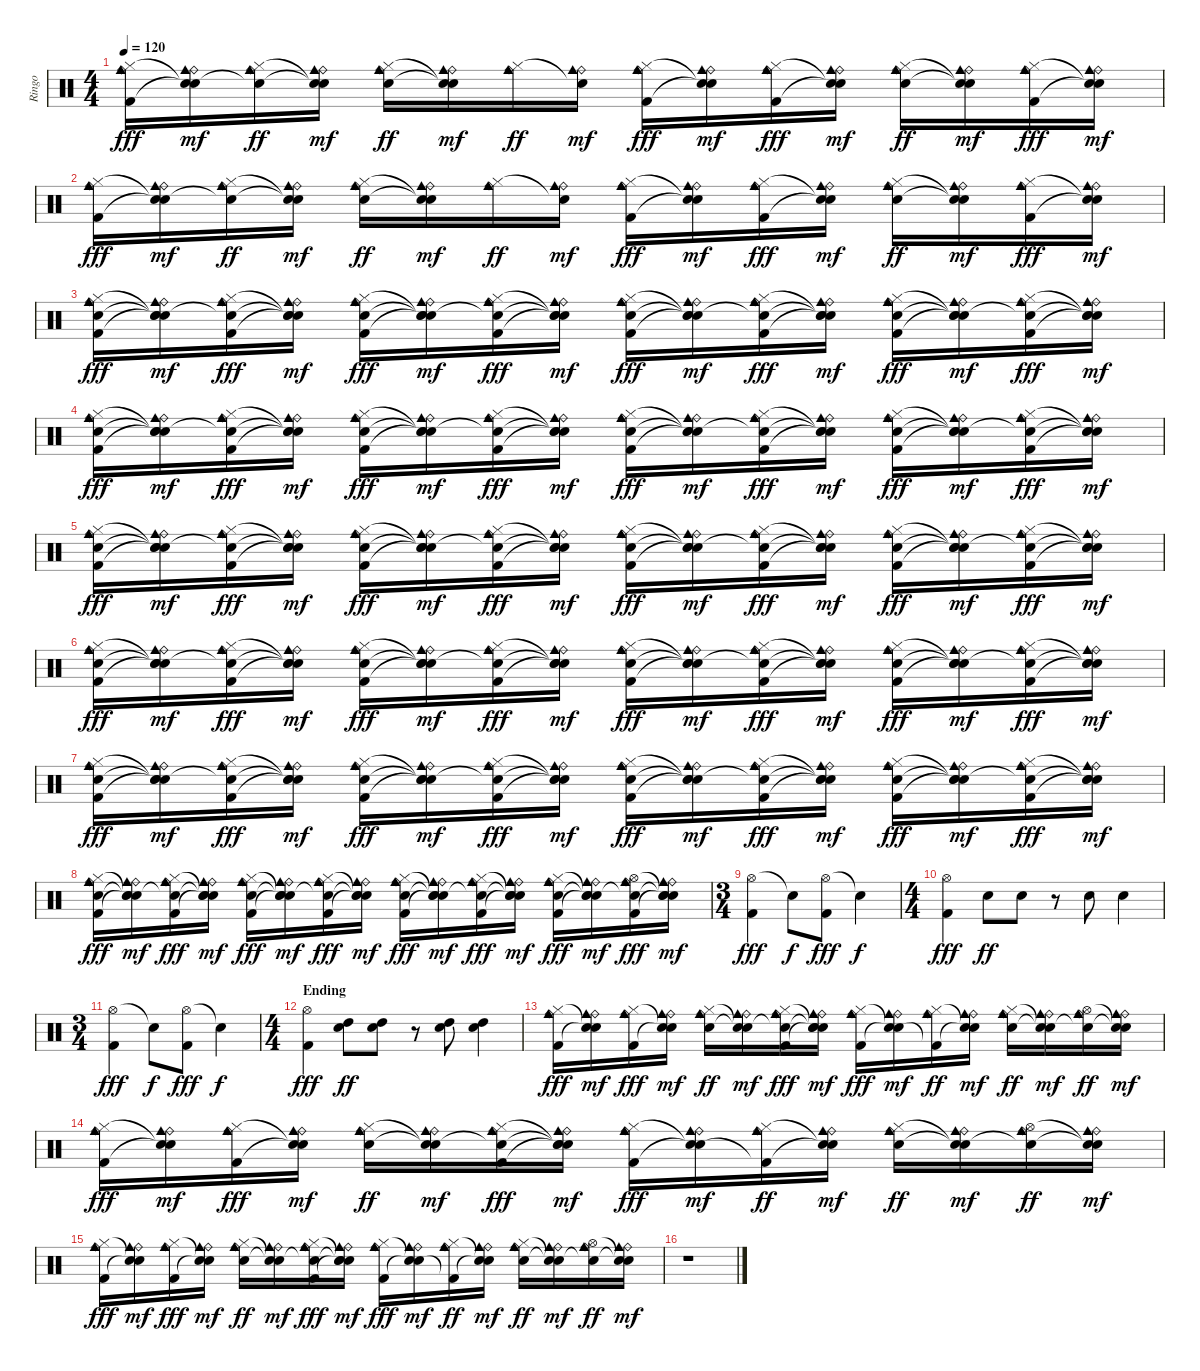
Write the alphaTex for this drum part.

\track ("Ringo" "Ringo") {instrument percussion}
\staff {score}
\articulation defaults
\ts (4 4)
\tempo 120
\clef neutral
\ks c
("Ride (bell)" "Cowbell medium (hit)" "Hi-Hat (closed)" "Kick (hit) 2").16{dy fff} ("Ride (bell)" "Cowbell medium (hit)" "Snare (hit)"{t} "Snare (hit)"{t}).16{dy mf} ("Ride (bell)" "Cowbell medium (hit)" "Hi-Hat (closed)" "Snare (hit)"{t}).16{dy ff} ("Ride (bell)" "Cowbell medium (hit)" "Snare (hit)"{t} "Snare (hit)"{t}).16{dy mf} ("Ride (bell)" "Cowbell medium (hit)" "Hi-Hat (closed)" "Electric Snare (hit)").16{dy ff} ("Ride (bell)" "Cowbell medium (hit)" "Snare (hit)"{t} "Snare (hit)"{t}).16{dy mf} ("Ride (bell)" "Cowbell medium (hit)" "Hi-Hat (closed)").16{dy ff} ("Ride (bell)" "Cowbell medium (hit)" "Snare (hit)"{t}).16{dy mf} ("Ride (bell)" "Cowbell medium (hit)" "Hi-Hat (closed)" "Kick (hit) 2").16{dy fff} ("Ride (bell)" "Cowbell medium (hit)" "Snare (hit)"{t} "Snare (hit)"{t}).16{dy mf} ("Ride (bell)" "Cowbell medium (hit)" "Hi-Hat (closed)" "Kick (hit) 2").16{dy fff} ("Ride (bell)" "Cowbell medium (hit)" "Snare (hit)"{t} "Snare (hit)"{t}).16{dy mf} ("Ride (bell)" "Cowbell medium (hit)" "Hi-Hat (closed)" "Electric Snare (hit)").16{dy ff} ("Ride (bell)" "Cowbell medium (hit)" "Snare (hit)"{t} "Snare (hit)"{t}).16{dy mf} ("Ride (bell)" "Cowbell medium (hit)" "Hi-Hat (closed)" "Kick (hit) 2").16{dy fff} ("Ride (bell)" "Cowbell medium (hit)" "Snare (hit)"{t} "Snare (hit)"{t}).16{dy mf} |
("Ride (bell)" "Cowbell medium (hit)" "Hi-Hat (closed)" "Kick (hit) 2").16{dy fff} ("Ride (bell)" "Cowbell medium (hit)" "Snare (hit)"{t} "Snare (hit)"{t}).16{dy mf} ("Ride (bell)" "Cowbell medium (hit)" "Hi-Hat (closed)" "Snare (hit)"{t}).16{dy ff} ("Ride (bell)" "Cowbell medium (hit)" "Snare (hit)"{t} "Snare (hit)"{t}).16{dy mf} ("Ride (bell)" "Cowbell medium (hit)" "Hi-Hat (closed)" "Electric Snare (hit)").16{dy ff} ("Ride (bell)" "Cowbell medium (hit)" "Snare (hit)"{t} "Snare (hit)"{t}).16{dy mf} ("Ride (bell)" "Cowbell medium (hit)" "Hi-Hat (closed)").16{dy ff} ("Ride (bell)" "Cowbell medium (hit)" "Snare (hit)"{t}).16{dy mf} ("Ride (bell)" "Cowbell medium (hit)" "Hi-Hat (closed)" "Kick (hit) 2").16{dy fff} ("Ride (bell)" "Cowbell medium (hit)" "Snare (hit)"{t} "Snare (hit)"{t}).16{dy mf} ("Ride (bell)" "Cowbell medium (hit)" "Hi-Hat (closed)" "Kick (hit) 2").16{dy fff} ("Ride (bell)" "Cowbell medium (hit)" "Snare (hit)"{t} "Snare (hit)"{t}).16{dy mf} ("Ride (bell)" "Cowbell medium (hit)" "Hi-Hat (closed)" "Electric Snare (hit)").16{dy ff} ("Ride (bell)" "Cowbell medium (hit)" "Snare (hit)"{t} "Snare (hit)"{t}).16{dy mf} ("Ride (bell)" "Cowbell medium (hit)" "Hi-Hat (closed)" "Kick (hit) 2").16{dy fff} ("Ride (bell)" "Cowbell medium (hit)" "Snare (hit)"{t} "Snare (hit)"{t}).16{dy mf} |
("Ride (bell)" "Cowbell medium (hit)" "Hi-Hat (closed)" "Electric Snare (hit)" "Kick (hit) 2").16{dy fff} ("Ride (bell)" "Cowbell medium (hit)" "Snare (hit)"{t} "Snare (hit)"{t} "Snare (hit)"{t}).16{dy mf} ("Ride (bell)" "Cowbell medium (hit)" "Hi-Hat (closed)" "Electric Snare (hit)"{t} "Kick (hit) 2").16{dy fff} ("Ride (bell)" "Cowbell medium (hit)" "Snare (hit)"{t} "Snare (hit)"{t} "Snare (hit)"{t}).16{dy mf} ("Ride (bell)" "Cowbell medium (hit)" "Hi-Hat (closed)" "Electric Snare (hit)" "Kick (hit) 2").16{dy fff} ("Ride (bell)" "Cowbell medium (hit)" "Snare (hit)"{t} "Snare (hit)"{t} "Snare (hit)"{t}).16{dy mf} ("Ride (bell)" "Cowbell medium (hit)" "Hi-Hat (closed)" "Snare (hit)"{t} "Kick (hit) 2").16{dy fff} ("Ride (bell)" "Cowbell medium (hit)" "Snare (hit)"{t} "Snare (hit)"{t} "Snare (hit)"{t}).16{dy mf} ("Ride (bell)" "Cowbell medium (hit)" "Hi-Hat (closed)" "Electric Snare (hit)" "Kick (hit) 2").16{dy fff} ("Ride (bell)" "Cowbell medium (hit)" "Snare (hit)"{t} "Snare (hit)"{t} "Snare (hit)"{t}).16{dy mf} ("Ride (bell)" "Cowbell medium (hit)" "Hi-Hat (closed)" "Snare (hit)"{t} "Kick (hit) 2").16{dy fff} ("Ride (bell)" "Cowbell medium (hit)" "Snare (hit)"{t} "Snare (hit)"{t} "Snare (hit)"{t}).16{dy mf} ("Ride (bell)" "Cowbell medium (hit)" "Hi-Hat (closed)" "Electric Snare (hit)" "Kick (hit) 2").16{dy fff} ("Ride (bell)" "Cowbell medium (hit)" "Snare (hit)"{t} "Snare (hit)"{t} "Snare (hit)"{t}).16{dy mf} ("Ride (bell)" "Cowbell medium (hit)" "Hi-Hat (closed)" "Snare (hit)"{t} "Kick (hit) 2").16{dy fff} ("Ride (bell)" "Cowbell medium (hit)" "Snare (hit)"{t} "Snare (hit)"{t} "Snare (hit)"{t}).16{dy mf} |
("Ride (bell)" "Cowbell medium (hit)" "Hi-Hat (closed)" "Electric Snare (hit)" "Kick (hit) 2").16{dy fff} ("Ride (bell)" "Cowbell medium (hit)" "Snare (hit)"{t} "Snare (hit)"{t} "Snare (hit)"{t}).16{dy mf} ("Ride (bell)" "Cowbell medium (hit)" "Hi-Hat (closed)" "Electric Snare (hit)"{t} "Kick (hit) 2").16{dy fff} ("Ride (bell)" "Cowbell medium (hit)" "Snare (hit)"{t} "Snare (hit)"{t} "Snare (hit)"{t}).16{dy mf} ("Ride (bell)" "Cowbell medium (hit)" "Hi-Hat (closed)" "Electric Snare (hit)" "Kick (hit) 2").16{dy fff} ("Ride (bell)" "Cowbell medium (hit)" "Snare (hit)"{t} "Snare (hit)"{t} "Snare (hit)"{t}).16{dy mf} ("Ride (bell)" "Cowbell medium (hit)" "Hi-Hat (closed)" "Snare (hit)"{t} "Kick (hit) 2").16{dy fff} ("Ride (bell)" "Cowbell medium (hit)" "Snare (hit)"{t} "Snare (hit)"{t} "Snare (hit)"{t}).16{dy mf} ("Ride (bell)" "Cowbell medium (hit)" "Hi-Hat (closed)" "Electric Snare (hit)" "Kick (hit) 2").16{dy fff} ("Ride (bell)" "Cowbell medium (hit)" "Snare (hit)"{t} "Snare (hit)"{t} "Snare (hit)"{t}).16{dy mf} ("Ride (bell)" "Cowbell medium (hit)" "Hi-Hat (closed)" "Snare (hit)"{t} "Kick (hit) 2").16{dy fff} ("Ride (bell)" "Cowbell medium (hit)" "Snare (hit)"{t} "Snare (hit)"{t} "Snare (hit)"{t}).16{dy mf} ("Ride (bell)" "Cowbell medium (hit)" "Hi-Hat (closed)" "Electric Snare (hit)" "Kick (hit) 2").16{dy fff} ("Ride (bell)" "Cowbell medium (hit)" "Snare (hit)"{t} "Snare (hit)"{t} "Snare (hit)"{t}).16{dy mf} ("Ride (bell)" "Cowbell medium (hit)" "Hi-Hat (closed)" "Snare (hit)"{t} "Kick (hit) 2").16{dy fff} ("Ride (bell)" "Cowbell medium (hit)" "Snare (hit)"{t} "Snare (hit)"{t} "Snare (hit)"{t}).16{dy mf} |
("Ride (bell)" "Cowbell medium (hit)" "Hi-Hat (closed)" "Electric Snare (hit)" "Kick (hit) 2").16{dy fff} ("Ride (bell)" "Cowbell medium (hit)" "Snare (hit)"{t} "Snare (hit)"{t} "Snare (hit)"{t}).16{dy mf} ("Ride (bell)" "Cowbell medium (hit)" "Hi-Hat (closed)" "Electric Snare (hit)"{t} "Kick (hit) 2").16{dy fff} ("Ride (bell)" "Cowbell medium (hit)" "Snare (hit)"{t} "Snare (hit)"{t} "Snare (hit)"{t}).16{dy mf} ("Ride (bell)" "Cowbell medium (hit)" "Hi-Hat (closed)" "Electric Snare (hit)" "Kick (hit) 2").16{dy fff} ("Ride (bell)" "Cowbell medium (hit)" "Snare (hit)"{t} "Snare (hit)"{t} "Snare (hit)"{t}).16{dy mf} ("Ride (bell)" "Cowbell medium (hit)" "Hi-Hat (closed)" "Snare (hit)"{t} "Kick (hit) 2").16{dy fff} ("Ride (bell)" "Cowbell medium (hit)" "Snare (hit)"{t} "Snare (hit)"{t} "Snare (hit)"{t}).16{dy mf} ("Ride (bell)" "Cowbell medium (hit)" "Hi-Hat (closed)" "Electric Snare (hit)" "Kick (hit) 2").16{dy fff} ("Ride (bell)" "Cowbell medium (hit)" "Snare (hit)"{t} "Snare (hit)"{t} "Snare (hit)"{t}).16{dy mf} ("Ride (bell)" "Cowbell medium (hit)" "Hi-Hat (closed)" "Snare (hit)"{t} "Kick (hit) 2").16{dy fff} ("Ride (bell)" "Cowbell medium (hit)" "Snare (hit)"{t} "Snare (hit)"{t} "Snare (hit)"{t}).16{dy mf} ("Ride (bell)" "Cowbell medium (hit)" "Hi-Hat (closed)" "Electric Snare (hit)" "Kick (hit) 2").16{dy fff} ("Ride (bell)" "Cowbell medium (hit)" "Snare (hit)"{t} "Snare (hit)"{t} "Snare (hit)"{t}).16{dy mf} ("Ride (bell)" "Cowbell medium (hit)" "Hi-Hat (closed)" "Snare (hit)"{t} "Kick (hit) 2").16{dy fff} ("Ride (bell)" "Cowbell medium (hit)" "Snare (hit)"{t} "Snare (hit)"{t} "Snare (hit)"{t}).16{dy mf} |
("Ride (bell)" "Cowbell medium (hit)" "Hi-Hat (closed)" "Electric Snare (hit)" "Kick (hit) 2").16{dy fff} ("Ride (bell)" "Cowbell medium (hit)" "Snare (hit)"{t} "Snare (hit)"{t} "Snare (hit)"{t}).16{dy mf} ("Ride (bell)" "Cowbell medium (hit)" "Hi-Hat (closed)" "Electric Snare (hit)"{t} "Kick (hit) 2").16{dy fff} ("Ride (bell)" "Cowbell medium (hit)" "Snare (hit)"{t} "Snare (hit)"{t} "Snare (hit)"{t}).16{dy mf} ("Ride (bell)" "Cowbell medium (hit)" "Hi-Hat (closed)" "Electric Snare (hit)" "Kick (hit) 2").16{dy fff} ("Ride (bell)" "Cowbell medium (hit)" "Snare (hit)"{t} "Snare (hit)"{t} "Snare (hit)"{t}).16{dy mf} ("Ride (bell)" "Cowbell medium (hit)" "Hi-Hat (closed)" "Snare (hit)"{t} "Kick (hit) 2").16{dy fff} ("Ride (bell)" "Cowbell medium (hit)" "Snare (hit)"{t} "Snare (hit)"{t} "Snare (hit)"{t}).16{dy mf} ("Ride (bell)" "Cowbell medium (hit)" "Hi-Hat (closed)" "Electric Snare (hit)" "Kick (hit) 2").16{dy fff} ("Ride (bell)" "Cowbell medium (hit)" "Snare (hit)"{t} "Snare (hit)"{t} "Snare (hit)"{t}).16{dy mf} ("Ride (bell)" "Cowbell medium (hit)" "Hi-Hat (closed)" "Snare (hit)"{t} "Kick (hit) 2").16{dy fff} ("Ride (bell)" "Cowbell medium (hit)" "Snare (hit)"{t} "Snare (hit)"{t} "Snare (hit)"{t}).16{dy mf} ("Ride (bell)" "Cowbell medium (hit)" "Hi-Hat (closed)" "Electric Snare (hit)" "Kick (hit) 2").16{dy fff} ("Ride (bell)" "Cowbell medium (hit)" "Snare (hit)"{t} "Snare (hit)"{t} "Snare (hit)"{t}).16{dy mf} ("Ride (bell)" "Cowbell medium (hit)" "Hi-Hat (closed)" "Snare (hit)"{t} "Kick (hit) 2").16{dy fff} ("Ride (bell)" "Cowbell medium (hit)" "Snare (hit)"{t} "Snare (hit)"{t} "Snare (hit)"{t}).16{dy mf} |
("Ride (bell)" "Cowbell medium (hit)" "Hi-Hat (closed)" "Electric Snare (hit)" "Kick (hit) 2").16{dy fff} ("Ride (bell)" "Cowbell medium (hit)" "Snare (hit)"{t} "Snare (hit)"{t} "Snare (hit)"{t}).16{dy mf} ("Ride (bell)" "Cowbell medium (hit)" "Hi-Hat (closed)" "Electric Snare (hit)"{t} "Kick (hit) 2").16{dy fff} ("Ride (bell)" "Cowbell medium (hit)" "Snare (hit)"{t} "Snare (hit)"{t} "Snare (hit)"{t}).16{dy mf} ("Ride (bell)" "Cowbell medium (hit)" "Hi-Hat (closed)" "Electric Snare (hit)" "Kick (hit) 2").16{dy fff} ("Ride (bell)" "Cowbell medium (hit)" "Snare (hit)"{t} "Snare (hit)"{t} "Snare (hit)"{t}).16{dy mf} ("Ride (bell)" "Cowbell medium (hit)" "Hi-Hat (closed)" "Snare (hit)"{t} "Kick (hit) 2").16{dy fff} ("Ride (bell)" "Cowbell medium (hit)" "Snare (hit)"{t} "Snare (hit)"{t} "Snare (hit)"{t}).16{dy mf} ("Ride (bell)" "Cowbell medium (hit)" "Hi-Hat (closed)" "Electric Snare (hit)" "Kick (hit) 2").16{dy fff} ("Ride (bell)" "Cowbell medium (hit)" "Snare (hit)"{t} "Snare (hit)"{t} "Snare (hit)"{t}).16{dy mf} ("Ride (bell)" "Cowbell medium (hit)" "Hi-Hat (closed)" "Snare (hit)"{t} "Kick (hit) 2").16{dy fff} ("Ride (bell)" "Cowbell medium (hit)" "Snare (hit)"{t} "Snare (hit)"{t} "Snare (hit)"{t}).16{dy mf} ("Ride (bell)" "Cowbell medium (hit)" "Hi-Hat (closed)" "Electric Snare (hit)" "Kick (hit) 2").16{dy fff} ("Ride (bell)" "Cowbell medium (hit)" "Snare (hit)"{t} "Snare (hit)"{t} "Snare (hit)"{t}).16{dy mf} ("Ride (bell)" "Cowbell medium (hit)" "Hi-Hat (closed)" "Snare (hit)"{t} "Kick (hit) 2").16{dy fff} ("Ride (bell)" "Cowbell medium (hit)" "Snare (hit)"{t} "Snare (hit)"{t} "Snare (hit)"{t}).16{dy mf} |
("Ride (bell)" "Cowbell medium (hit)" "Hi-Hat (closed)" "Electric Snare (hit)" "Kick (hit) 2").16{dy fff} ("Ride (bell)" "Cowbell medium (hit)" "Snare (hit)"{t} "Snare (hit)"{t} "Snare (hit)"{t}).16{dy mf} ("Ride (bell)" "Cowbell medium (hit)" "Hi-Hat (closed)" "Electric Snare (hit)"{t} "Kick (hit) 2").16{dy fff} ("Ride (bell)" "Cowbell medium (hit)" "Snare (hit)"{t} "Snare (hit)"{t} "Snare (hit)"{t}).16{dy mf} ("Ride (bell)" "Cowbell medium (hit)" "Hi-Hat (closed)" "Electric Snare (hit)" "Kick (hit) 2").16{dy fff} ("Ride (bell)" "Cowbell medium (hit)" "Snare (hit)"{t} "Snare (hit)"{t} "Snare (hit)"{t}).16{dy mf} ("Ride (bell)" "Cowbell medium (hit)" "Hi-Hat (closed)" "Snare (hit)"{t} "Kick (hit) 2").16{dy fff} ("Ride (bell)" "Cowbell medium (hit)" "Snare (hit)"{t} "Snare (hit)"{t} "Snare (hit)"{t}).16{dy mf} ("Ride (bell)" "Cowbell medium (hit)" "Hi-Hat (closed)" "Electric Snare (hit)" "Kick (hit) 2").16{dy fff} ("Ride (bell)" "Cowbell medium (hit)" "Snare (hit)"{t} "Snare (hit)"{t} "Snare (hit)"{t}).16{dy mf} ("Ride (bell)" "Cowbell medium (hit)" "Hi-Hat (closed)" "Snare (hit)"{t} "Kick (hit) 2").16{dy fff} ("Ride (bell)" "Cowbell medium (hit)" "Snare (hit)"{t} "Snare (hit)"{t} "Snare (hit)"{t}).16{dy mf} ("Ride (bell)" "Cowbell medium (hit)" "Hi-Hat (closed)" "Electric Snare (hit)" "Kick (hit) 2").16{dy fff} ("Ride (bell)" "Cowbell medium (hit)" "Snare (hit)"{t} "Snare (hit)"{t} "Snare (hit)"{t}).16{dy mf} ("Ride (bell)" "Cowbell medium (hit)" "Hi-Hat (open)" "Snare (hit)"{t} "Kick (hit) 2").16{dy fff} ("Ride (bell)" "Cowbell medium (hit)" "Snare (hit)"{t} "Snare (hit)"{t} "Snare (hit)"{t}).16{dy mf} |
\ts (3 4)
("Hi-Hat (open)" "Kick (hit) 2").4{dy fff} "Snare (hit)"{t}.8{dy f} ("Hi-Hat (open)" "Kick (hit) 2").8{dy fff} "Snare (hit)"{t}.4{dy f} |
\ts (4 4)
("Hi-Hat (open)" "Kick (hit) 2").4{dy fff} "Electric Snare (hit)".8{dy ff} "Electric Snare (hit)".8 r.8 "Electric Snare (hit)".8 "Electric Snare (hit)".4 |
\ts (3 4)
("Hi-Hat (open)" "Kick (hit) 2").4{dy fff} "Snare (hit)"{t}.8{dy f} ("Hi-Hat (open)" "Kick (hit) 2").8{dy fff} "Snare (hit)"{t}.4{dy f} |
\ts (4 4)
\section ("" "Ending")
("Hi-Hat (open)" "Kick (hit) 2").4{dy fff} ("High Tom (hit)" "Electric Snare (hit)").8{dy ff} ("High Tom (hit)" "Electric Snare (hit)").8 r.8 ("High Tom (hit)" "Electric Snare (hit)").8 ("High Tom (hit)" "Electric Snare (hit)").4 |
("Ride (bell)" "Cowbell medium (hit)" "Hi-Hat (closed)" "Kick (hit) 2").16{dy fff} ("Ride (bell)" "Cowbell medium (hit)" "Snare (hit)"{t} "Snare (hit)"{t}).16{dy mf} ("Ride (bell)" "Cowbell medium (hit)" "Hi-Hat (closed)" "Kick (hit) 2").16{dy fff} ("Ride (bell)" "Cowbell medium (hit)" "Snare (hit)"{t} "Snare (hit)"{t}).16{dy mf} ("Ride (bell)" "Cowbell medium (hit)" "Hi-Hat (closed)" "Electric Snare (hit)").16{dy ff} ("Ride (bell)" "Cowbell medium (hit)" "Snare (hit)"{t} "Snare (hit)"{t}).16{dy mf} ("Ride (bell)" "Cowbell medium (hit)" "Hi-Hat (closed)" "Snare (hit)"{t} "Kick (hit) 2").16{dy fff} ("Ride (bell)" "Cowbell medium (hit)" "Snare (hit)"{t} "Snare (hit)"{t} "Snare (hit)"{t}).16{dy mf} ("Ride (bell)" "Cowbell medium (hit)" "Hi-Hat (closed)" "Kick (hit) 2").16{dy fff} ("Ride (bell)" "Cowbell medium (hit)" "Snare (hit)"{t} "Snare (hit)"{t}).16{dy mf} ("Ride (bell)" "Cowbell medium (hit)" "Hi-Hat (closed)" "Kick (hit) 2"{t}).16{dy ff} ("Ride (bell)" "Cowbell medium (hit)" "Snare (hit)"{t} "Snare (hit)"{t}).16{dy mf} ("Ride (bell)" "Cowbell medium (hit)" "Hi-Hat (closed)" "Electric Snare (hit)").16{dy ff} ("Ride (bell)" "Cowbell medium (hit)" "Snare (hit)"{t} "Snare (hit)"{t}).16{dy mf} ("Ride (bell)" "Cowbell medium (hit)" "Hi-Hat (open)" "Snare (hit)"{t}).16{dy ff} ("Ride (bell)" "Cowbell medium (hit)" "Snare (hit)"{t} "Snare (hit)"{t}).16{dy mf} |
("Ride (bell)" "Cowbell medium (hit)" "Hi-Hat (closed)" "Kick (hit) 2").16{dy fff} ("Ride (bell)" "Cowbell medium (hit)" "Snare (hit)"{t} "Snare (hit)"{t}).16{dy mf} ("Ride (bell)" "Cowbell medium (hit)" "Hi-Hat (closed)" "Kick (hit) 2").16{dy fff} ("Ride (bell)" "Cowbell medium (hit)" "Snare (hit)"{t} "Snare (hit)"{t}).16{dy mf} ("Ride (bell)" "Cowbell medium (hit)" "Hi-Hat (closed)" "Electric Snare (hit)").16{dy ff} ("Ride (bell)" "Cowbell medium (hit)" "Snare (hit)"{t} "Snare (hit)"{t}).16{dy mf} ("Ride (bell)" "Cowbell medium (hit)" "Hi-Hat (closed)" "Snare (hit)"{t} "Kick (hit) 2").16{dy fff} ("Ride (bell)" "Cowbell medium (hit)" "Snare (hit)"{t} "Snare (hit)"{t} "Snare (hit)"{t}).16{dy mf} ("Ride (bell)" "Cowbell medium (hit)" "Hi-Hat (closed)" "Kick (hit) 2").16{dy fff} ("Ride (bell)" "Cowbell medium (hit)" "Snare (hit)"{t} "Snare (hit)"{t}).16{dy mf} ("Ride (bell)" "Cowbell medium (hit)" "Hi-Hat (closed)" "Kick (hit) 2"{t}).16{dy ff} ("Ride (bell)" "Cowbell medium (hit)" "Snare (hit)"{t} "Snare (hit)"{t}).16{dy mf} ("Ride (bell)" "Cowbell medium (hit)" "Hi-Hat (closed)" "Electric Snare (hit)").16{dy ff} ("Ride (bell)" "Cowbell medium (hit)" "Snare (hit)"{t} "Snare (hit)"{t}).16{dy mf} ("Ride (bell)" "Cowbell medium (hit)" "Hi-Hat (open)" "Snare (hit)"{t}).16{dy ff} ("Ride (bell)" "Cowbell medium (hit)" "Snare (hit)"{t} "Snare (hit)"{t}).16{dy mf} |
("Ride (bell)" "Cowbell medium (hit)" "Hi-Hat (closed)" "Kick (hit) 2").16{dy fff} ("Ride (bell)" "Cowbell medium (hit)" "Snare (hit)"{t} "Snare (hit)"{t}).16{dy mf} ("Ride (bell)" "Cowbell medium (hit)" "Hi-Hat (closed)" "Kick (hit) 2").16{dy fff} ("Ride (bell)" "Cowbell medium (hit)" "Snare (hit)"{t} "Snare (hit)"{t}).16{dy mf} ("Ride (bell)" "Cowbell medium (hit)" "Hi-Hat (closed)" "Electric Snare (hit)").16{dy ff} ("Ride (bell)" "Cowbell medium (hit)" "Snare (hit)"{t} "Snare (hit)"{t}).16{dy mf} ("Ride (bell)" "Cowbell medium (hit)" "Hi-Hat (closed)" "Snare (hit)"{t} "Kick (hit) 2").16{dy fff} ("Ride (bell)" "Cowbell medium (hit)" "Snare (hit)"{t} "Snare (hit)"{t} "Snare (hit)"{t}).16{dy mf} ("Ride (bell)" "Cowbell medium (hit)" "Hi-Hat (closed)" "Kick (hit) 2").16{dy fff} ("Ride (bell)" "Cowbell medium (hit)" "Snare (hit)"{t} "Snare (hit)"{t}).16{dy mf} ("Ride (bell)" "Cowbell medium (hit)" "Hi-Hat (closed)" "Kick (hit) 2"{t}).16{dy ff} ("Ride (bell)" "Cowbell medium (hit)" "Snare (hit)"{t} "Snare (hit)"{t}).16{dy mf} ("Ride (bell)" "Cowbell medium (hit)" "Hi-Hat (closed)" "Electric Snare (hit)").16{dy ff} ("Ride (bell)" "Cowbell medium (hit)" "Snare (hit)"{t} "Snare (hit)"{t}).16{dy mf} ("Ride (bell)" "Cowbell medium (hit)" "Hi-Hat (open)" "Snare (hit)"{t}).16{dy ff} ("Ride (bell)" "Cowbell medium (hit)" "Snare (hit)"{t} "Snare (hit)"{t}).16{dy mf} |
r.1
